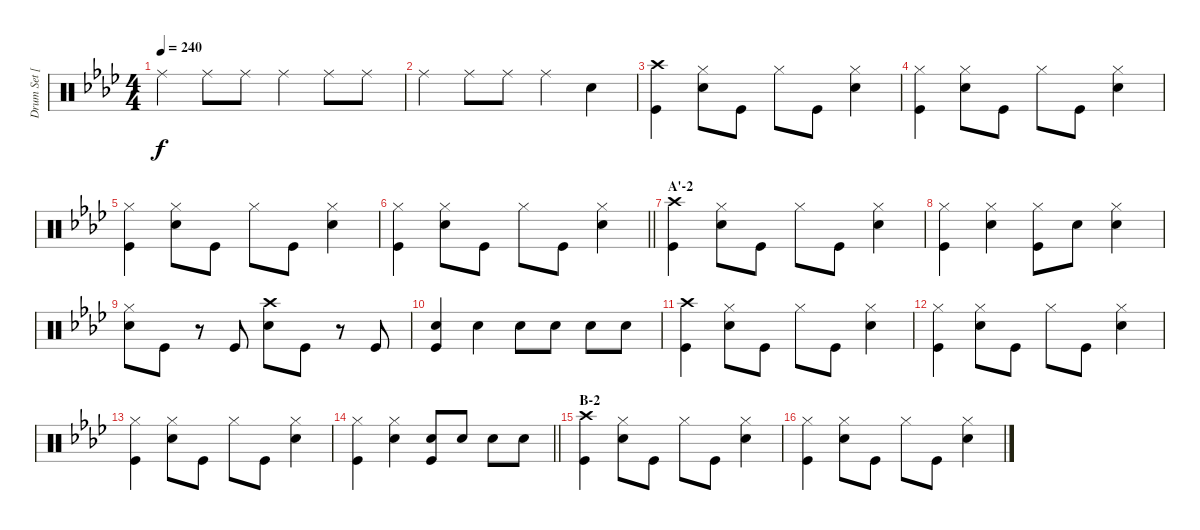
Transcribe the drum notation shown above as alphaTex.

\track ("Drum Set [Ritsu]" "Drum Set [") {instrument percussion}
\staff {score}
\articulation defaults
\ts (4 4)
\tempo 240
\clef neutral
\ks ab "Ride (middle)".4{dy f} "Ride (middle)".8 "Ride (middle)".8 "Ride (middle)".4 "Ride (middle)".8 "Ride (middle)".8
|
"Ride (middle)".4 "Ride (middle)".8 "Ride (middle)".8 "Ride (middle)".4 "Snare (hit) 2".4 |
("Crash high (hit)" "Kick (hit)").4 ("Hi-Hat (closed)" "Snare (hit) 2").8 "Kick (hit)".8 "Hi-Hat (closed)".8 "Kick (hit)".8 ("Hi-Hat (closed)" "Snare (hit) 2").4 |
("Hi-Hat (closed)" "Kick (hit)").4 ("Hi-Hat (closed)" "Snare (hit) 2").8 "Kick (hit)".8 "Hi-Hat (closed)".8 "Kick (hit)".8 ("Hi-Hat (closed)" "Snare (hit) 2").4 |
("Hi-Hat (closed)" "Kick (hit)").4 ("Hi-Hat (closed)" "Snare (hit) 2").8 "Kick (hit)".8 "Hi-Hat (closed)".8 "Kick (hit)".8 ("Hi-Hat (closed)" "Snare (hit) 2").4 |
\barLineRight lightlight
("Hi-Hat (closed)" "Kick (hit)").4 ("Hi-Hat (closed)" "Snare (hit) 2").8 "Kick (hit)".8 "Hi-Hat (closed)".8 "Kick (hit)".8 ("Hi-Hat (closed)" "Snare (hit) 2").4 |
\section ("" "A'-2")
("Crash high (hit)" "Kick (hit)").4 ("Hi-Hat (closed)" "Snare (hit) 2").8 "Kick (hit)".8 "Hi-Hat (closed)".8 "Kick (hit)".8 ("Hi-Hat (closed)" "Snare (hit) 2").4 |
("Hi-Hat (closed)" "Kick (hit)").4 ("Hi-Hat (closed)" "Snare (hit) 2").4 ("Hi-Hat (closed)" "Kick (hit)").8 "Snare (hit) 2".8 ("Hi-Hat (closed)" "Snare (hit) 2").4 |
("Hi-Hat (closed)" "Snare (hit) 2").8 "Kick (hit)".8 r.8 "Kick (hit)".8 ("Crash high (hit)" "Snare (hit) 2").8 "Kick (hit)".8 r.8 "Kick (hit)".8 |
("Snare (hit) 2" "Kick (hit)").4 "Snare (hit) 2".4 "Snare (hit) 2".8 "Snare (hit) 2".8 "Snare (hit) 2".8 "Snare (hit) 2".8 |
("Crash high (hit)" "Kick (hit)").4 ("Hi-Hat (closed)" "Snare (hit) 2").8 "Kick (hit)".8 "Hi-Hat (closed)".8 "Kick (hit)".8 ("Hi-Hat (closed)" "Snare (hit) 2").4 |
("Hi-Hat (closed)" "Kick (hit)").4 ("Hi-Hat (closed)" "Snare (hit) 2").8 "Kick (hit)".8 "Hi-Hat (closed)".8 "Kick (hit)".8 ("Hi-Hat (closed)" "Snare (hit) 2").4 |
("Hi-Hat (closed)" "Kick (hit)").4 ("Hi-Hat (closed)" "Snare (hit) 2").8 "Kick (hit)".8 "Hi-Hat (closed)".8 "Kick (hit)".8 ("Hi-Hat (closed)" "Snare (hit) 2").4 |
\barLineRight lightlight
("Hi-Hat (closed)" "Kick (hit)").4 ("Hi-Hat (closed)" "Snare (hit) 2").4 ("Snare (hit) 2" "Kick (hit)").8 "Snare (hit) 2".8 "Snare (hit) 2".8 "Snare (hit) 2".8 |
\section ("" "B-2")
("Crash high (hit)" "Kick (hit)").4 ("Hi-Hat (closed)" "Snare (hit) 2").8 "Kick (hit)".8 "Hi-Hat (closed)".8 "Kick (hit)".8 ("Hi-Hat (closed)" "Snare (hit) 2").4 |
("Hi-Hat (closed)" "Kick (hit)").4 ("Hi-Hat (closed)" "Snare (hit) 2").8 "Kick (hit)".8 "Hi-Hat (closed)".8 "Kick (hit)".8 ("Hi-Hat (closed)" "Snare (hit) 2").4
